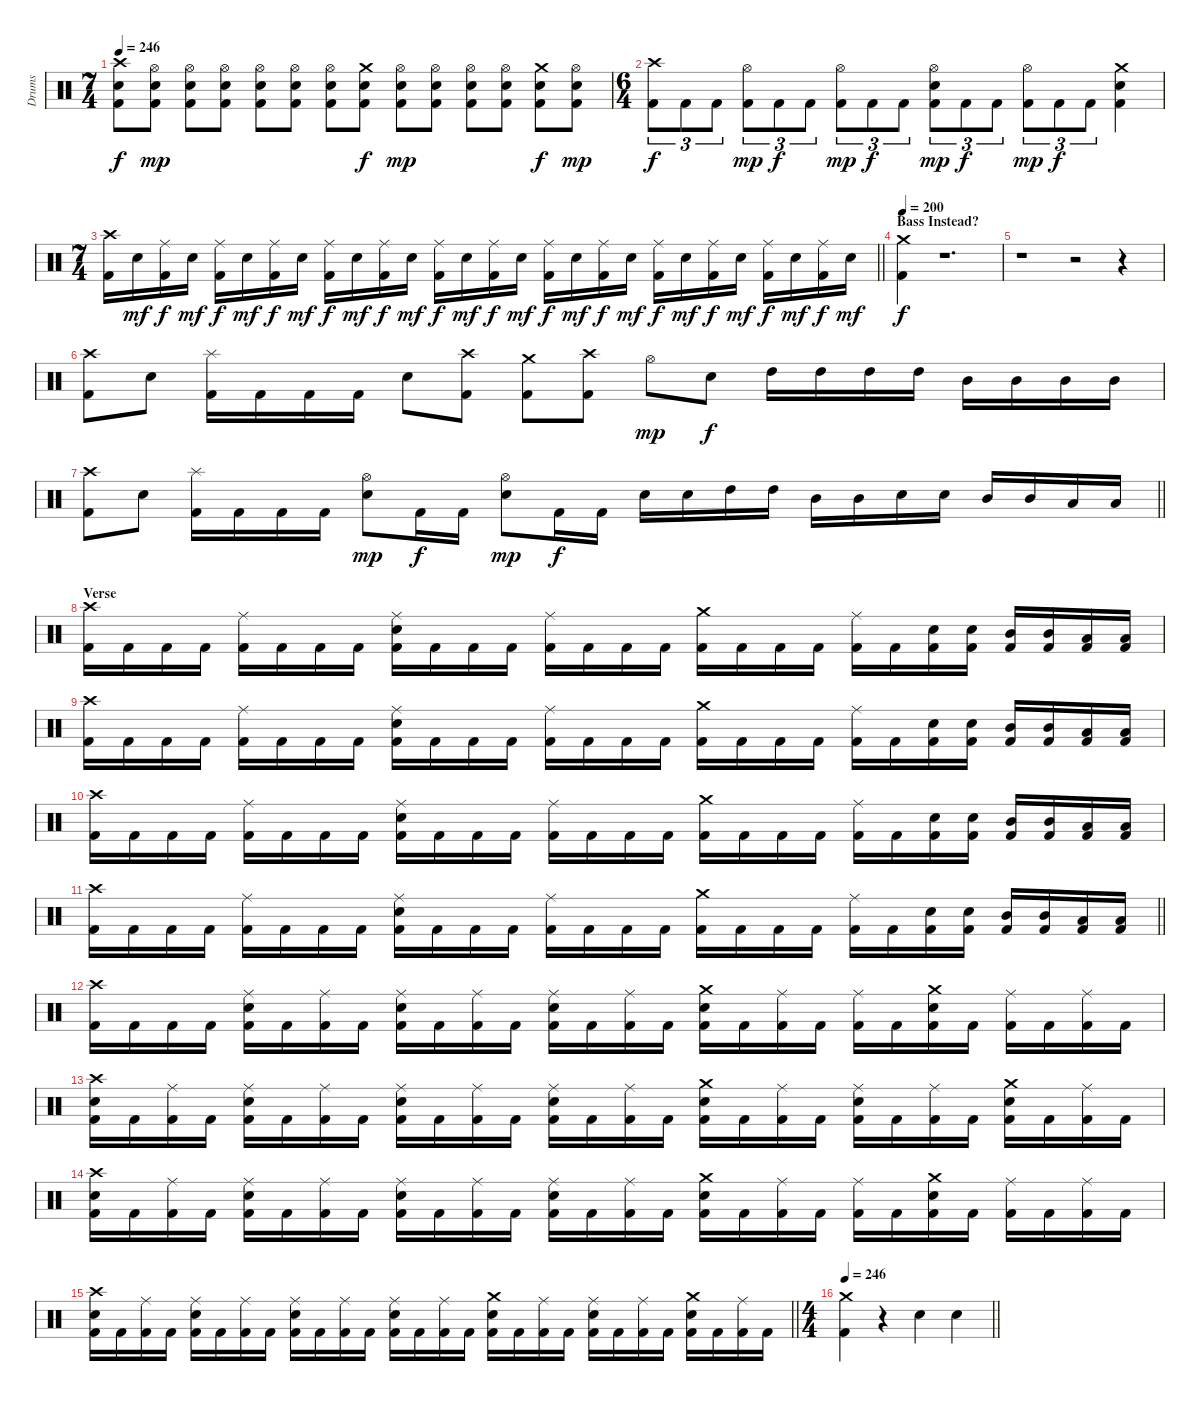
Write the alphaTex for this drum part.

\track ("Drums" "Drums") {instrument percussion}
\staff {score}
\articulation defaults
\ts (7 4)
\tempo 246
\clef neutral
\ks c
("Crash high (hit)" "Snare (hit) 2" "Kick (hit) 2").8{dy f} ("Hi-Hat (open)" "Snare (hit) 2" "Kick (hit) 2").8{dy mp} ("Hi-Hat (open)" "Snare (hit) 2" "Kick (hit) 2").8 ("Hi-Hat (open)" "Snare (hit) 2" "Kick (hit) 2").8 ("Hi-Hat (open)" "Snare (hit) 2" "Kick (hit) 2").8 ("Hi-Hat (open)" "Snare (hit) 2" "Kick (hit) 2").8 ("Hi-Hat (open)" "Snare (hit) 2" "Kick (hit) 2").8 ("Crash medium (hit)" "Snare (hit) 2" "Kick (hit) 2").8{dy f} ("Hi-Hat (open)" "Snare (hit) 2" "Kick (hit) 2").8{dy mp} ("Hi-Hat (open)" "Snare (hit) 2" "Kick (hit) 2").8 ("Hi-Hat (open)" "Snare (hit) 2" "Kick (hit) 2").8 ("Hi-Hat (open)" "Snare (hit) 2" "Kick (hit) 2").8 ("Crash medium (hit)" "Snare (hit) 2" "Kick (hit) 2").8{dy f} ("Hi-Hat (open)" "Snare (hit) 2" "Kick (hit) 2").8{dy mp} |
\ts (6 4)
("Crash high (hit)" "Kick (hit) 2").8{tu (3 2) dy f} "Kick (hit) 2".8{tu (3 2)} "Kick (hit) 2".8{tu (3 2)} ("Hi-Hat (open)" "Kick (hit) 2").8{tu (3 2) dy mp} "Kick (hit) 2".8{tu (3 2) dy f} "Kick (hit) 2".8{tu (3 2)} ("Hi-Hat (open)" "Kick (hit) 2").8{tu (3 2) dy mp} "Kick (hit) 2".8{tu (3 2) dy f} "Kick (hit) 2".8{tu (3 2)} ("Hi-Hat (open)" "Snare (hit) 2" "Kick (hit) 2").8{tu (3 2) dy mp} "Kick (hit) 2".8{tu (3 2) dy f} "Kick (hit) 2".8{tu (3 2)} ("Hi-Hat (open)" "Kick (hit) 2").8{tu (3 2) dy mp} "Kick (hit) 2".8{tu (3 2) dy f} "Kick (hit) 2".8{tu (3 2)} ("Crash medium (hit)" "Snare (hit) 2" "Kick (hit) 2").4 |
\ts (7 4)
\barLineRight lightlight
("Crash high (hit)" "Kick (hit) 2").16 "Snare (hit) 2".16{dy mf} ("Ride (middle)" "Kick (hit) 2").16{dy f} "Snare (hit) 2".16{dy mf} ("Ride (middle)" "Kick (hit) 2").16{dy f} "Snare (hit) 2".16{dy mf} ("Ride (middle)" "Kick (hit) 2").16{dy f} "Snare (hit) 2".16{dy mf} ("Ride (middle)" "Kick (hit) 2").16{dy f} "Snare (hit) 2".16{dy mf} ("Ride (middle)" "Kick (hit) 2").16{dy f} "Snare (hit) 2".16{dy mf} ("Ride (middle)" "Kick (hit) 2").16{dy f} "Snare (hit) 2".16{dy mf} ("Ride (middle)" "Kick (hit) 2").16{dy f} "Snare (hit) 2".16{dy mf} ("Ride (middle)" "Kick (hit) 2").16{dy f} "Snare (hit) 2".16{dy mf} ("Ride (middle)" "Kick (hit) 2").16{dy f} "Snare (hit) 2".16{dy mf} ("Ride (middle)" "Kick (hit) 2").16{dy f} "Snare (hit) 2".16{dy mf} ("Ride (middle)" "Kick (hit) 2").16{dy f} "Snare (hit) 2".16{dy mf} ("Ride (middle)" "Kick (hit) 2").16{dy f} "Snare (hit) 2".16{dy mf} ("Ride (middle)" "Kick (hit) 2").16{dy f} "Snare (hit) 2".16{dy mf} |
\section ("" "Bass Instead?")
\tempo 200
("Crash medium (hit)" "Kick (hit) 2").4{dy f} r.1{d} |
r.1 r.2 r.4 |
("Crash high (hit)" "Kick (hit) 2").8 "Snare (hit) 2".8 ("Splash (hit)" "Kick (hit) 2").16 "Kick (hit) 2".16 "Kick (hit) 2".16 "Kick (hit) 2".16 "Snare (hit) 2".8 ("Crash high (hit)" "Kick (hit) 2").8 ("Crash medium (hit)" "Kick (hit) 2").8 ("Crash high (hit)" "Kick (hit) 2").8 "Hi-Hat (open)".8{dy mp} "Snare (hit) 2".8{dy f} "High Tom (hit)".16 "High Tom (hit)".16 "High Tom (hit)".16 "High Tom (hit)".16 "Mid Tom (hit)".16 "Mid Tom (hit)".16 "Mid Tom (hit)".16 "Mid Tom (hit)".16 |
\barLineRight lightlight
("Crash high (hit)" "Kick (hit) 2").8 "Snare (hit) 2".8 ("Splash (hit)" "Kick (hit) 2").16 "Kick (hit) 2".16 "Kick (hit) 2".16 "Kick (hit) 2".16 ("Hi-Hat (open)" "Snare (hit) 2").8{dy mp} "Kick (hit) 2".16{dy f} "Kick (hit) 2".16 ("Hi-Hat (open)" "Snare (hit) 2").8{dy mp} "Kick (hit) 2".16{dy f} "Kick (hit) 2".16 "Snare (hit) 2".16 "Snare (hit) 2".16 "High Tom (hit)".16 "High Tom (hit)".16 "Mid Tom (hit)".16 "Mid Tom (hit)".16 "Snare (hit) 2".16 "Snare (hit) 2".16 "Mid Tom (hit)".16 "Mid Tom (hit)".16 "Low Tom (hit)".16 "Low Tom (hit)".16 |
\section ("" "Verse")
("Crash high (hit)" "Kick (hit) 2").16 "Kick (hit) 2".16 "Kick (hit) 2".16 "Kick (hit) 2".16 ("Ride (middle)" "Kick (hit) 2").16 "Kick (hit) 2".16 "Kick (hit) 2".16 "Kick (hit) 2".16 ("Ride (middle)" "Snare (hit) 2" "Kick (hit) 2").16 "Kick (hit) 2".16 "Kick (hit) 2".16 "Kick (hit) 2".16 ("Ride (middle)" "Kick (hit) 2").16 "Kick (hit) 2".16 "Kick (hit) 2".16 "Kick (hit) 2".16 ("Crash medium (hit)" "Kick (hit) 2").16 "Kick (hit) 2".16 "Kick (hit) 2".16 "Kick (hit) 2".16 ("Ride (middle)" "Kick (hit) 2").16 "Kick (hit) 2".16 ("Snare (hit) 2" "Kick (hit) 2").16 ("Snare (hit) 2" "Kick (hit) 2").16 ("Mid Tom (hit)" "Kick (hit) 2").16 ("Mid Tom (hit)" "Kick (hit) 2").16 ("Low Tom (hit)" "Kick (hit) 2").16 ("Low Tom (hit)" "Kick (hit) 2").16 |
("Crash high (hit)" "Kick (hit) 2").16 "Kick (hit) 2".16 "Kick (hit) 2".16 "Kick (hit) 2".16 ("Ride (middle)" "Kick (hit) 2").16 "Kick (hit) 2".16 "Kick (hit) 2".16 "Kick (hit) 2".16 ("Ride (middle)" "Snare (hit) 2" "Kick (hit) 2").16 "Kick (hit) 2".16 "Kick (hit) 2".16 "Kick (hit) 2".16 ("Ride (middle)" "Kick (hit) 2").16 "Kick (hit) 2".16 "Kick (hit) 2".16 "Kick (hit) 2".16 ("Crash medium (hit)" "Kick (hit) 2").16 "Kick (hit) 2".16 "Kick (hit) 2".16 "Kick (hit) 2".16 ("Ride (middle)" "Kick (hit) 2").16 "Kick (hit) 2".16 ("Snare (hit) 2" "Kick (hit) 2").16 ("Snare (hit) 2" "Kick (hit) 2").16 ("Mid Tom (hit)" "Kick (hit) 2").16 ("Mid Tom (hit)" "Kick (hit) 2").16 ("Low Tom (hit)" "Kick (hit) 2").16 ("Low Tom (hit)" "Kick (hit) 2").16 |
("Crash high (hit)" "Kick (hit) 2").16 "Kick (hit) 2".16 "Kick (hit) 2".16 "Kick (hit) 2".16 ("Ride (middle)" "Kick (hit) 2").16 "Kick (hit) 2".16 "Kick (hit) 2".16 "Kick (hit) 2".16 ("Ride (middle)" "Snare (hit) 2" "Kick (hit) 2").16 "Kick (hit) 2".16 "Kick (hit) 2".16 "Kick (hit) 2".16 ("Ride (middle)" "Kick (hit) 2").16 "Kick (hit) 2".16 "Kick (hit) 2".16 "Kick (hit) 2".16 ("Crash medium (hit)" "Kick (hit) 2").16 "Kick (hit) 2".16 "Kick (hit) 2".16 "Kick (hit) 2".16 ("Ride (middle)" "Kick (hit) 2").16 "Kick (hit) 2".16 ("Snare (hit) 2" "Kick (hit) 2").16 ("Snare (hit) 2" "Kick (hit) 2").16 ("Mid Tom (hit)" "Kick (hit) 2").16 ("Mid Tom (hit)" "Kick (hit) 2").16 ("Low Tom (hit)" "Kick (hit) 2").16 ("Low Tom (hit)" "Kick (hit) 2").16 |
\barLineRight lightlight
("Crash high (hit)" "Kick (hit) 2").16 "Kick (hit) 2".16 "Kick (hit) 2".16 "Kick (hit) 2".16 ("Ride (middle)" "Kick (hit) 2").16 "Kick (hit) 2".16 "Kick (hit) 2".16 "Kick (hit) 2".16 ("Ride (middle)" "Snare (hit) 2" "Kick (hit) 2").16 "Kick (hit) 2".16 "Kick (hit) 2".16 "Kick (hit) 2".16 ("Ride (middle)" "Kick (hit) 2").16 "Kick (hit) 2".16 "Kick (hit) 2".16 "Kick (hit) 2".16 ("Crash medium (hit)" "Kick (hit) 2").16 "Kick (hit) 2".16 "Kick (hit) 2".16 "Kick (hit) 2".16 ("Ride (middle)" "Kick (hit) 2").16 "Kick (hit) 2".16 ("Snare (hit) 2" "Kick (hit) 2").16 ("Snare (hit) 2" "Kick (hit) 2").16 ("Mid Tom (hit)" "Kick (hit) 2").16 ("Mid Tom (hit)" "Kick (hit) 2").16 ("Low Tom (hit)" "Kick (hit) 2").16 ("Low Tom (hit)" "Kick (hit) 2").16 |
\section ("" "")
("Crash high (hit)" "Kick (hit) 2").16 "Kick (hit) 2".16 "Kick (hit) 2".16 "Kick (hit) 2".16 ("Ride (middle)" "Snare (hit) 2" "Kick (hit) 2").16 "Kick (hit) 2".16 ("Ride (middle)" "Kick (hit) 2").16 "Kick (hit) 2".16 ("Ride (middle)" "Snare (hit) 2" "Kick (hit) 2").16 "Kick (hit) 2".16 ("Ride (middle)" "Kick (hit) 2").16 "Kick (hit) 2".16 ("Ride (middle)" "Snare (hit) 2" "Kick (hit) 2").16 "Kick (hit) 2".16 ("Ride (middle)" "Kick (hit) 2").16 "Kick (hit) 2".16 ("Crash medium (hit)" "Snare (hit) 2" "Kick (hit) 2").16 "Kick (hit) 2".16 ("Ride (middle)" "Kick (hit) 2").16 "Kick (hit) 2".16 ("Ride (middle)" "Kick (hit) 2").16 "Kick (hit) 2".16 ("Crash medium (hit)" "Snare (hit) 2" "Kick (hit) 2").16 "Kick (hit) 2".16 ("Ride (middle)" "Kick (hit) 2").16 "Kick (hit) 2".16 ("Ride (middle)" "Kick (hit) 2").16 "Kick (hit) 2".16 |
("Crash high (hit)" "Snare (hit) 2" "Kick (hit) 2").16 "Kick (hit) 2".16 ("Ride (middle)" "Kick (hit) 2").16 "Kick (hit) 2".16 ("Ride (middle)" "Snare (hit) 2" "Kick (hit) 2").16 "Kick (hit) 2".16 ("Ride (middle)" "Kick (hit) 2").16 "Kick (hit) 2".16 ("Ride (middle)" "Snare (hit) 2" "Kick (hit) 2").16 "Kick (hit) 2".16 ("Ride (middle)" "Kick (hit) 2").16 "Kick (hit) 2".16 ("Ride (middle)" "Snare (hit) 2" "Kick (hit) 2").16 "Kick (hit) 2".16 ("Ride (middle)" "Kick (hit) 2").16 "Kick (hit) 2".16 ("Crash medium (hit)" "Snare (hit) 2" "Kick (hit) 2").16 "Kick (hit) 2".16 ("Ride (middle)" "Kick (hit) 2").16 "Kick (hit) 2".16 ("Ride (middle)" "Snare (hit) 2" "Kick (hit) 2").16 "Kick (hit) 2".16 ("Ride (middle)" "Kick (hit) 2").16 "Kick (hit) 2".16 ("Crash medium (hit)" "Snare (hit) 2" "Kick (hit) 2").16 "Kick (hit) 2".16 ("Ride (middle)" "Kick (hit) 2").16 "Kick (hit) 2".16 |
("Crash high (hit)" "Snare (hit) 2" "Kick (hit) 2").16 "Kick (hit) 2".16 ("Ride (middle)" "Kick (hit) 2").16 "Kick (hit) 2".16 ("Ride (middle)" "Snare (hit) 2" "Kick (hit) 2").16 "Kick (hit) 2".16 ("Ride (middle)" "Kick (hit) 2").16 "Kick (hit) 2".16 ("Ride (middle)" "Snare (hit) 2" "Kick (hit) 2").16 "Kick (hit) 2".16 ("Ride (middle)" "Kick (hit) 2").16 "Kick (hit) 2".16 ("Ride (middle)" "Snare (hit) 2" "Kick (hit) 2").16 "Kick (hit) 2".16 ("Ride (middle)" "Kick (hit) 2").16 "Kick (hit) 2".16 ("Crash medium (hit)" "Snare (hit) 2" "Kick (hit) 2").16 "Kick (hit) 2".16 ("Ride (middle)" "Kick (hit) 2").16 "Kick (hit) 2".16 ("Ride (middle)" "Kick (hit) 2").16 "Kick (hit) 2".16 ("Crash medium (hit)" "Snare (hit) 2" "Kick (hit) 2").16 "Kick (hit) 2".16 ("Ride (middle)" "Kick (hit) 2").16 "Kick (hit) 2".16 ("Ride (middle)" "Kick (hit) 2").16 "Kick (hit) 2".16 |
\barLineRight lightlight
("Crash high (hit)" "Snare (hit) 2" "Kick (hit) 2").16 "Kick (hit) 2".16 ("Ride (middle)" "Kick (hit) 2").16 "Kick (hit) 2".16 ("Ride (middle)" "Snare (hit) 2" "Kick (hit) 2").16 "Kick (hit) 2".16 ("Ride (middle)" "Kick (hit) 2").16 "Kick (hit) 2".16 ("Ride (middle)" "Snare (hit) 2" "Kick (hit) 2").16 "Kick (hit) 2".16 ("Ride (middle)" "Kick (hit) 2").16 "Kick (hit) 2".16 ("Ride (middle)" "Snare (hit) 2" "Kick (hit) 2").16 "Kick (hit) 2".16 ("Ride (middle)" "Kick (hit) 2").16 "Kick (hit) 2".16 ("Crash medium (hit)" "Snare (hit) 2" "Kick (hit) 2").16 "Kick (hit) 2".16 ("Ride (middle)" "Kick (hit) 2").16 "Kick (hit) 2".16 ("Ride (middle)" "Snare (hit) 2" "Kick (hit) 2").16 "Kick (hit) 2".16 ("Ride (middle)" "Kick (hit) 2").16 "Kick (hit) 2".16 ("Crash medium (hit)" "Snare (hit) 2" "Kick (hit) 2").16 "Kick (hit) 2".16 ("Ride (middle)" "Kick (hit) 2").16 "Kick (hit) 2".16 |
\ts (4 4)
\section ("" "")
\tempo 246
\barLineRight lightlight
("Crash medium (hit)" "Kick (hit) 2").4 r.4 "Snare (hit) 2".4 "Snare (hit) 2".4
